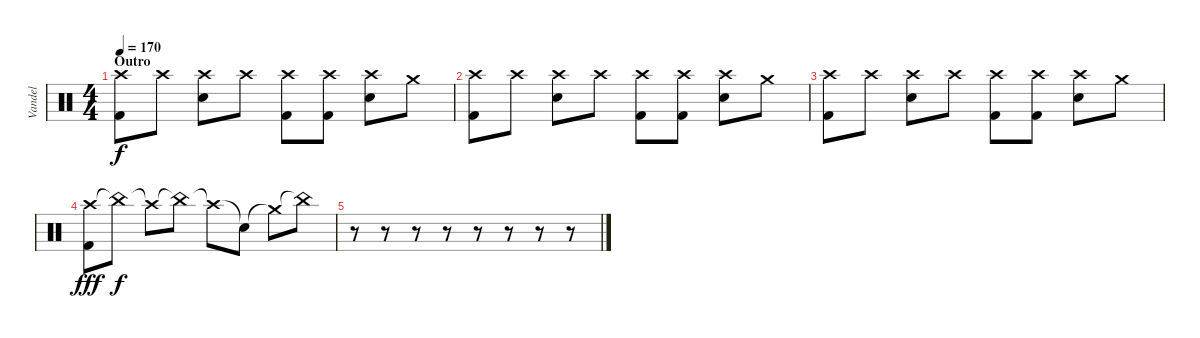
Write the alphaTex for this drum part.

\track ("Vandel" "Vandel") {instrument percussion}
\staff {score}
\articulation defaults
\ts (4 4)
\section ("" "Outro")
\tempo 170
\clef neutral
\ks c
("Crash high (hit)" "Kick (hit) 2").8{dy f} "Crash high (hit)".8 ("Crash high (hit)" "Electric Snare (hit)").8 "Crash high (hit)".8 ("Crash high (hit)" "Kick (hit) 2").8 ("Crash high (hit)" "Kick (hit) 2").8 ("Crash high (hit)" "Electric Snare (hit)").8 "Crash medium (hit)".8 |
("Crash high (hit)" "Kick (hit) 2").8 "Crash high (hit)".8 ("Crash high (hit)" "Electric Snare (hit)").8 "Crash high (hit)".8 ("Crash high (hit)" "Kick (hit) 2").8 ("Crash high (hit)" "Kick (hit) 2").8 ("Crash high (hit)" "Electric Snare (hit)").8 "Crash medium (hit)".8 |
("Crash high (hit)" "Kick (hit) 2").8 "Crash high (hit)".8 ("Crash high (hit)" "Electric Snare (hit)").8 "Crash high (hit)".8 ("Crash high (hit)" "Kick (hit) 2").8 ("Crash high (hit)" "Kick (hit) 2").8 ("Crash high (hit)" "Electric Snare (hit)").8 "Crash medium (hit)".8 |
("Crash high (hit)" "Kick (hit) 2").8{dy fff} "China (hit)"{t}.8{dy f} "Crash high (hit)"{t}.8 "China (hit)"{t}.8 "Crash high (hit)"{t}.8 "Snare (hit)"{t}.8 "Crash medium (hit)"{t}.8 "China (hit)"{t}.8 |
r.8 r.8 r.8 r.8 r.8 r.8 r.8 r.8
